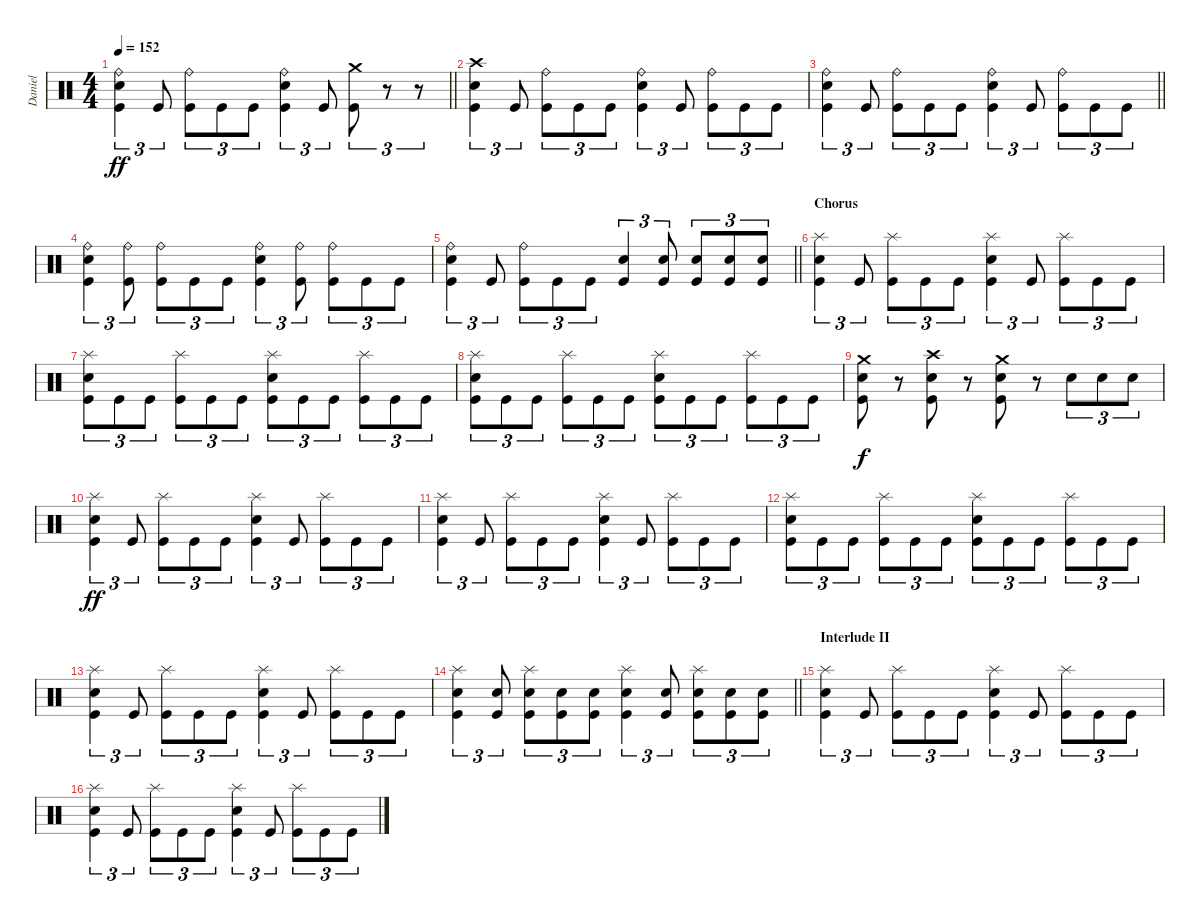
\track ("Daniel" "Daniel") {instrument percussion}
\staff {score}
\articulation defaults
\ts (4 4)
\tempo 152
\clef neutral
\barLineRight lightlight
\ks c
("Kick (hit)" "Snare (hit) 2" "Ride (bell)").4{tu (3 2) dy ff} "Kick (hit)".8{tu (3 2)} ("Kick (hit)" "Ride (bell)").8{tu (3 2)} "Kick (hit)".8{tu (3 2)} "Kick (hit)".8{tu (3 2)} ("Kick (hit)" "Snare (hit) 2" "Ride (bell)").4{tu (3 2)} "Kick (hit)".8{tu (3 2)} ("Kick (hit)" "Crash medium (hit)").8{tu (3 2)} r.8{tu (3 2)} r.8{tu (3 2)} |
("Kick (hit)" "Snare (hit) 2" "Crash high (hit)").4{tu (3 2)} "Kick (hit)".8{tu (3 2)} ("Kick (hit)" "Ride (bell)").8{tu (3 2)} "Kick (hit)".8{tu (3 2)} "Kick (hit)".8{tu (3 2)} ("Kick (hit)" "Snare (hit) 2" "Ride (bell)").4{tu (3 2)} "Kick (hit)".8{tu (3 2)} ("Kick (hit)" "Ride (bell)").8{tu (3 2)} "Kick (hit)".8{tu (3 2)} "Kick (hit)".8{tu (3 2)} |
\barLineRight lightlight
("Kick (hit)" "Snare (hit) 2" "Ride (bell)").4{tu (3 2)} "Kick (hit)".8{tu (3 2)} ("Kick (hit)" "Ride (bell)").8{tu (3 2)} "Kick (hit)".8{tu (3 2)} "Kick (hit)".8{tu (3 2)} ("Kick (hit)" "Snare (hit) 2" "Ride (bell)").4{tu (3 2)} "Kick (hit)".8{tu (3 2)} ("Kick (hit)" "Ride (bell)").8{tu (3 2)} "Kick (hit)".8{tu (3 2)} "Kick (hit)".8{tu (3 2)} |
("Kick (hit)" "Snare (hit) 2" "Ride (bell)").4{tu (3 2)} ("Kick (hit)" "Ride (bell)").8{tu (3 2)} ("Kick (hit)" "Ride (bell)").8{tu (3 2)} "Kick (hit)".8{tu (3 2)} "Kick (hit)".8{tu (3 2)} ("Kick (hit)" "Snare (hit) 2" "Ride (bell)").4{tu (3 2)} ("Kick (hit)" "Ride (bell)").8{tu (3 2)} ("Kick (hit)" "Ride (bell)").8{tu (3 2)} "Kick (hit)".8{tu (3 2)} "Kick (hit)".8{tu (3 2)} |
\barLineRight lightlight
("Kick (hit)" "Snare (hit) 2" "Ride (bell)").4{tu (3 2)} "Kick (hit)".8{tu (3 2)} ("Kick (hit)" "Ride (bell)").8{tu (3 2)} "Kick (hit)".8{tu (3 2)} "Kick (hit)".8{tu (3 2)} ("Kick (hit)" "Snare (hit) 2").4{tu (3 2)} ("Kick (hit)" "Snare (hit) 2").8{tu (3 2)} ("Kick (hit)" "Snare (hit) 2").8{tu (3 2)} ("Kick (hit)" "Snare (hit) 2").8{tu (3 2)} ("Kick (hit)" "Snare (hit) 2").8{tu (3 2)} |
\section ("" "Chorus")
("Kick (hit)" "Snare (hit) 2" "Splash (hit)").4{tu (3 2)} "Kick (hit)".8{tu (3 2)} ("Kick (hit)" "Splash (hit)").8{tu (3 2)} "Kick (hit)".8{tu (3 2)} "Kick (hit)".8{tu (3 2)} ("Kick (hit)" "Snare (hit) 2" "Splash (hit)").4{tu (3 2)} "Kick (hit)".8{tu (3 2)} ("Kick (hit)" "Splash (hit)").8{tu (3 2)} "Kick (hit)".8{tu (3 2)} "Kick (hit)".8{tu (3 2)} |
("Kick (hit)" "Snare (hit) 2" "Splash (hit)").8{tu (3 2)} "Kick (hit)".8{tu (3 2)} "Kick (hit)".8{tu (3 2)} ("Kick (hit)" "Splash (hit)").8{tu (3 2)} "Kick (hit)".8{tu (3 2)} "Kick (hit)".8{tu (3 2)} ("Kick (hit)" "Snare (hit) 2" "Splash (hit)").8{tu (3 2)} "Kick (hit)".8{tu (3 2)} "Kick (hit)".8{tu (3 2)} ("Kick (hit)" "Splash (hit)").8{tu (3 2)} "Kick (hit)".8{tu (3 2)} "Kick (hit)".8{tu (3 2)} |
("Kick (hit)" "Snare (hit) 2" "Splash (hit)").8{tu (3 2)} "Kick (hit)".8{tu (3 2)} "Kick (hit)".8{tu (3 2)} ("Kick (hit)" "Splash (hit)").8{tu (3 2)} "Kick (hit)".8{tu (3 2)} "Kick (hit)".8{tu (3 2)} ("Kick (hit)" "Snare (hit) 2" "Splash (hit)").8{tu (3 2)} "Kick (hit)".8{tu (3 2)} "Kick (hit)".8{tu (3 2)} ("Kick (hit)" "Splash (hit)").8{tu (3 2)} "Kick (hit)".8{tu (3 2)} "Kick (hit)".8{tu (3 2)} |
("Kick (hit)" "Snare (hit) 2" "Crash medium (hit)").8{dy f} r.8 ("Kick (hit)" "Snare (hit) 2" "Crash high (hit)").8 r.8 ("Kick (hit)" "Snare (hit) 2" "Crash medium (hit)").8 r.8 "Snare (hit) 2".8{tu (3 2)} "Snare (hit) 2".8{tu (3 2)} "Snare (hit) 2".8{tu (3 2)} |
("Kick (hit)" "Snare (hit) 2" "Splash (hit)").4{tu (3 2) dy ff} "Kick (hit)".8{tu (3 2)} ("Kick (hit)" "Splash (hit)").8{tu (3 2)} "Kick (hit)".8{tu (3 2)} "Kick (hit)".8{tu (3 2)} ("Kick (hit)" "Snare (hit) 2" "Splash (hit)").4{tu (3 2)} "Kick (hit)".8{tu (3 2)} ("Kick (hit)" "Splash (hit)").8{tu (3 2)} "Kick (hit)".8{tu (3 2)} "Kick (hit)".8{tu (3 2)} |
("Kick (hit)" "Snare (hit) 2" "Splash (hit)").4{tu (3 2)} "Kick (hit)".8{tu (3 2)} ("Kick (hit)" "Splash (hit)").8{tu (3 2)} "Kick (hit)".8{tu (3 2)} "Kick (hit)".8{tu (3 2)} ("Kick (hit)" "Snare (hit) 2" "Splash (hit)").4{tu (3 2)} "Kick (hit)".8{tu (3 2)} ("Kick (hit)" "Splash (hit)").8{tu (3 2)} "Kick (hit)".8{tu (3 2)} "Kick (hit)".8{tu (3 2)} |
("Kick (hit)" "Snare (hit) 2" "Splash (hit)").8{tu (3 2)} "Kick (hit)".8{tu (3 2)} "Kick (hit)".8{tu (3 2)} ("Kick (hit)" "Splash (hit)").8{tu (3 2)} "Kick (hit)".8{tu (3 2)} "Kick (hit)".8{tu (3 2)} ("Kick (hit)" "Snare (hit) 2" "Splash (hit)").8{tu (3 2)} "Kick (hit)".8{tu (3 2)} "Kick (hit)".8{tu (3 2)} ("Kick (hit)" "Splash (hit)").8{tu (3 2)} "Kick (hit)".8{tu (3 2)} "Kick (hit)".8{tu (3 2)} |
("Kick (hit)" "Snare (hit) 2" "Splash (hit)").4{tu (3 2)} "Kick (hit)".8{tu (3 2)} ("Kick (hit)" "Splash (hit)").8{tu (3 2)} "Kick (hit)".8{tu (3 2)} "Kick (hit)".8{tu (3 2)} ("Kick (hit)" "Snare (hit) 2" "Splash (hit)").4{tu (3 2)} "Kick (hit)".8{tu (3 2)} ("Kick (hit)" "Splash (hit)").8{tu (3 2)} "Kick (hit)".8{tu (3 2)} "Kick (hit)".8{tu (3 2)} |
\barLineRight lightlight
("Kick (hit)" "Snare (hit) 2" "Splash (hit)").4{tu (3 2)} ("Kick (hit)" "Snare (hit) 2").8{tu (3 2)} ("Kick (hit)" "Snare (hit) 2" "Splash (hit)").8{tu (3 2)} ("Kick (hit)" "Snare (hit) 2").8{tu (3 2)} ("Kick (hit)" "Snare (hit) 2").8{tu (3 2)} ("Kick (hit)" "Snare (hit) 2" "Splash (hit)").4{tu (3 2)} ("Kick (hit)" "Snare (hit) 2").8{tu (3 2)} ("Kick (hit)" "Snare (hit) 2" "Splash (hit)").8{tu (3 2)} ("Kick (hit)" "Snare (hit) 2").8{tu (3 2)} ("Kick (hit)" "Snare (hit) 2").8{tu (3 2)} |
\section ("" "Interlude II")
("Kick (hit)" "Snare (hit) 2" "Splash (hit)").4{tu (3 2)} "Kick (hit)".8{tu (3 2)} ("Kick (hit)" "Splash (hit)").8{tu (3 2)} "Kick (hit)".8{tu (3 2)} "Kick (hit)".8{tu (3 2)} ("Kick (hit)" "Snare (hit) 2" "Splash (hit)").4{tu (3 2)} "Kick (hit)".8{tu (3 2)} ("Kick (hit)" "Splash (hit)").8{tu (3 2)} "Kick (hit)".8{tu (3 2)} "Kick (hit)".8{tu (3 2)} |
("Kick (hit)" "Snare (hit) 2" "Splash (hit)").4{tu (3 2)} "Kick (hit)".8{tu (3 2)} ("Kick (hit)" "Splash (hit)").8{tu (3 2)} "Kick (hit)".8{tu (3 2)} "Kick (hit)".8{tu (3 2)} ("Kick (hit)" "Snare (hit) 2" "Splash (hit)").4{tu (3 2)} "Kick (hit)".8{tu (3 2)} ("Kick (hit)" "Splash (hit)").8{tu (3 2)} "Kick (hit)".8{tu (3 2)} "Kick (hit)".8{tu (3 2)}
